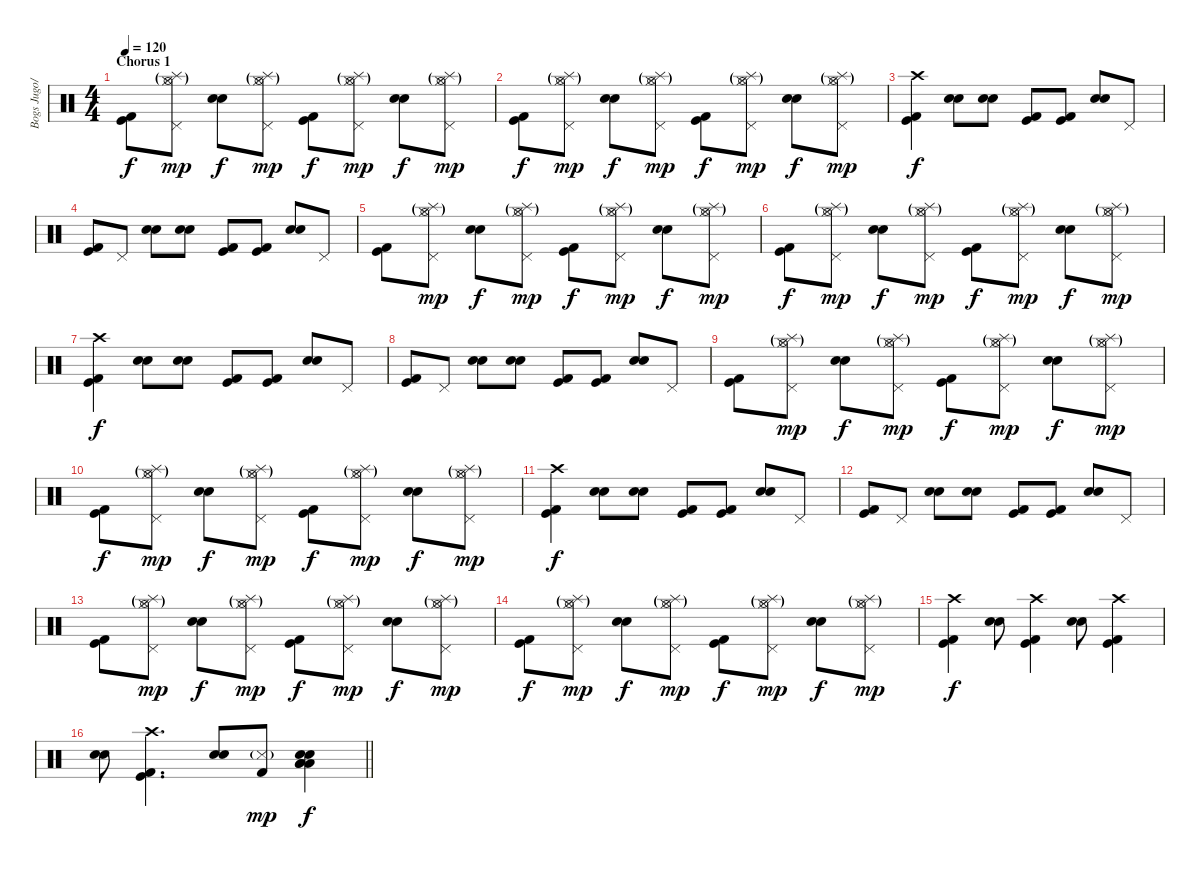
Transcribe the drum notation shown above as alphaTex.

\track ("Bogs Jugo/Drums" "Bogs Jugo/") {instrument percussion}
\staff {score}
\articulation defaults
\ts (4 4)
\section ("" "Chorus 1")
\tempo 120
\clef neutral
\ks c
("Kick (hit) 2" "Kick (hit)").8{dy f} ("Hi-Hat (open)"{g} "Splash (hit)"{g} "Pedal Hi-Hat (hit)" "Hi-Hat (closed)").8{dy mp} ("Electric Snare (hit)" "Snare (hit) 2").8{dy f} ("Hi-Hat (open)"{g} "Splash (hit)"{g} "Pedal Hi-Hat (hit)" "Hi-Hat (closed)").8{dy mp} ("Kick (hit) 2" "Kick (hit)").8{dy f} ("Hi-Hat (open)"{g} "Splash (hit)"{g} "Pedal Hi-Hat (hit)" "Hi-Hat (closed)").8{dy mp} ("Electric Snare (hit)" "Snare (hit) 2").8{dy f} ("Hi-Hat (open)"{g} "Splash (hit)"{g} "Pedal Hi-Hat (hit)" "Hi-Hat (closed)").8{dy mp} |
("Kick (hit) 2" "Kick (hit)").8{dy f} ("Hi-Hat (open)"{g} "Splash (hit)"{g} "Pedal Hi-Hat (hit)" "Hi-Hat (closed)").8{dy mp} ("Electric Snare (hit)" "Snare (hit) 2").8{dy f} ("Hi-Hat (open)"{g} "Splash (hit)"{g} "Pedal Hi-Hat (hit)" "Hi-Hat (closed)").8{dy mp} ("Kick (hit) 2" "Kick (hit)").8{dy f} ("Hi-Hat (open)"{g} "Splash (hit)"{g} "Pedal Hi-Hat (hit)" "Hi-Hat (closed)").8{dy mp} ("Electric Snare (hit)" "Snare (hit) 2").8{dy f} ("Hi-Hat (open)"{g} "Splash (hit)"{g} "Pedal Hi-Hat (hit)" "Hi-Hat (closed)").8{dy mp} |
("Crash high (hit)" "Kick (hit) 2" "Kick (hit)").4{dy f} ("Electric Snare (hit)" "Snare (hit) 2").8 ("Electric Snare (hit)" "Snare (hit) 2").8 ("Kick (hit) 2" "Kick (hit)").8 ("Kick (hit) 2" "Kick (hit)").8 ("Electric Snare (hit)" "Snare (hit) 2").8 "Pedal Hi-Hat (hit)".8 |
("Kick (hit) 2" "Kick (hit)").8 "Pedal Hi-Hat (hit)".8 ("Electric Snare (hit)" "Snare (hit) 2").8 ("Electric Snare (hit)" "Snare (hit) 2").8 ("Kick (hit) 2" "Kick (hit)").8 ("Kick (hit) 2" "Kick (hit)").8 ("Electric Snare (hit)" "Snare (hit) 2").8 "Pedal Hi-Hat (hit)".8 |
("Kick (hit) 2" "Kick (hit)").8 ("Hi-Hat (open)"{g} "Splash (hit)"{g} "Pedal Hi-Hat (hit)" "Hi-Hat (closed)").8{dy mp} ("Electric Snare (hit)" "Snare (hit) 2").8{dy f} ("Hi-Hat (open)"{g} "Splash (hit)"{g} "Pedal Hi-Hat (hit)" "Hi-Hat (closed)").8{dy mp} ("Kick (hit) 2" "Kick (hit)").8{dy f} ("Hi-Hat (open)"{g} "Splash (hit)"{g} "Pedal Hi-Hat (hit)" "Hi-Hat (closed)").8{dy mp} ("Electric Snare (hit)" "Snare (hit) 2").8{dy f} ("Hi-Hat (open)"{g} "Splash (hit)"{g} "Pedal Hi-Hat (hit)" "Hi-Hat (closed)").8{dy mp} |
("Kick (hit) 2" "Kick (hit)").8{dy f} ("Hi-Hat (open)"{g} "Splash (hit)"{g} "Pedal Hi-Hat (hit)" "Hi-Hat (closed)").8{dy mp} ("Electric Snare (hit)" "Snare (hit) 2").8{dy f} ("Hi-Hat (open)"{g} "Splash (hit)"{g} "Pedal Hi-Hat (hit)" "Hi-Hat (closed)").8{dy mp} ("Kick (hit) 2" "Kick (hit)").8{dy f} ("Hi-Hat (open)"{g} "Splash (hit)"{g} "Pedal Hi-Hat (hit)" "Hi-Hat (closed)").8{dy mp} ("Electric Snare (hit)" "Snare (hit) 2").8{dy f} ("Hi-Hat (open)"{g} "Splash (hit)"{g} "Pedal Hi-Hat (hit)" "Hi-Hat (closed)").8{dy mp} |
("Crash high (hit)" "Kick (hit) 2" "Kick (hit)").4{dy f} ("Electric Snare (hit)" "Snare (hit) 2").8 ("Electric Snare (hit)" "Snare (hit) 2").8 ("Kick (hit) 2" "Kick (hit)").8 ("Kick (hit) 2" "Kick (hit)").8 ("Electric Snare (hit)" "Snare (hit) 2").8 "Pedal Hi-Hat (hit)".8 |
("Kick (hit) 2" "Kick (hit)").8 "Pedal Hi-Hat (hit)".8 ("Electric Snare (hit)" "Snare (hit) 2").8 ("Electric Snare (hit)" "Snare (hit) 2").8 ("Kick (hit) 2" "Kick (hit)").8 ("Kick (hit) 2" "Kick (hit)").8 ("Electric Snare (hit)" "Snare (hit) 2").8 "Pedal Hi-Hat (hit)".8 |
("Kick (hit) 2" "Kick (hit)").8 ("Hi-Hat (open)"{g} "Splash (hit)"{g} "Pedal Hi-Hat (hit)" "Hi-Hat (closed)").8{dy mp} ("Electric Snare (hit)" "Snare (hit) 2").8{dy f} ("Hi-Hat (open)"{g} "Splash (hit)"{g} "Pedal Hi-Hat (hit)" "Hi-Hat (closed)").8{dy mp} ("Kick (hit) 2" "Kick (hit)").8{dy f} ("Hi-Hat (open)"{g} "Splash (hit)"{g} "Pedal Hi-Hat (hit)" "Hi-Hat (closed)").8{dy mp} ("Electric Snare (hit)" "Snare (hit) 2").8{dy f} ("Hi-Hat (open)"{g} "Splash (hit)"{g} "Pedal Hi-Hat (hit)" "Hi-Hat (closed)").8{dy mp} |
("Kick (hit) 2" "Kick (hit)").8{dy f} ("Hi-Hat (open)"{g} "Splash (hit)"{g} "Pedal Hi-Hat (hit)" "Hi-Hat (closed)").8{dy mp} ("Electric Snare (hit)" "Snare (hit) 2").8{dy f} ("Hi-Hat (open)"{g} "Splash (hit)"{g} "Pedal Hi-Hat (hit)" "Hi-Hat (closed)").8{dy mp} ("Kick (hit) 2" "Kick (hit)").8{dy f} ("Hi-Hat (open)"{g} "Splash (hit)"{g} "Pedal Hi-Hat (hit)" "Hi-Hat (closed)").8{dy mp} ("Electric Snare (hit)" "Snare (hit) 2").8{dy f} ("Hi-Hat (open)"{g} "Splash (hit)"{g} "Pedal Hi-Hat (hit)" "Hi-Hat (closed)").8{dy mp} |
("Crash high (hit)" "Kick (hit) 2" "Kick (hit)").4{dy f} ("Electric Snare (hit)" "Snare (hit) 2").8 ("Electric Snare (hit)" "Snare (hit) 2").8 ("Kick (hit) 2" "Kick (hit)").8 ("Kick (hit) 2" "Kick (hit)").8 ("Electric Snare (hit)" "Snare (hit) 2").8 "Pedal Hi-Hat (hit)".8 |
("Kick (hit) 2" "Kick (hit)").8 "Pedal Hi-Hat (hit)".8 ("Electric Snare (hit)" "Snare (hit) 2").8 ("Electric Snare (hit)" "Snare (hit) 2").8 ("Kick (hit) 2" "Kick (hit)").8 ("Kick (hit) 2" "Kick (hit)").8 ("Electric Snare (hit)" "Snare (hit) 2").8 "Pedal Hi-Hat (hit)".8 |
("Kick (hit) 2" "Kick (hit)").8 ("Hi-Hat (open)"{g} "Splash (hit)"{g} "Pedal Hi-Hat (hit)" "Hi-Hat (closed)").8{dy mp} ("Electric Snare (hit)" "Snare (hit) 2").8{dy f} ("Hi-Hat (open)"{g} "Splash (hit)"{g} "Pedal Hi-Hat (hit)" "Hi-Hat (closed)").8{dy mp} ("Kick (hit) 2" "Kick (hit)").8{dy f} ("Hi-Hat (open)"{g} "Splash (hit)"{g} "Pedal Hi-Hat (hit)" "Hi-Hat (closed)").8{dy mp} ("Electric Snare (hit)" "Snare (hit) 2").8{dy f} ("Hi-Hat (open)"{g} "Splash (hit)"{g} "Pedal Hi-Hat (hit)" "Hi-Hat (closed)").8{dy mp} |
("Kick (hit) 2" "Kick (hit)").8{dy f} ("Hi-Hat (open)"{g} "Splash (hit)"{g} "Pedal Hi-Hat (hit)" "Hi-Hat (closed)").8{dy mp} ("Electric Snare (hit)" "Snare (hit) 2").8{dy f} ("Hi-Hat (open)"{g} "Splash (hit)"{g} "Pedal Hi-Hat (hit)" "Hi-Hat (closed)").8{dy mp} ("Kick (hit) 2" "Kick (hit)").8{dy f} ("Hi-Hat (open)"{g} "Splash (hit)"{g} "Pedal Hi-Hat (hit)" "Hi-Hat (closed)").8{dy mp} ("Electric Snare (hit)" "Snare (hit) 2").8{dy f} ("Hi-Hat (open)"{g} "Splash (hit)"{g} "Pedal Hi-Hat (hit)" "Hi-Hat (closed)").8{dy mp} |
("Crash high (hit)" "Kick (hit) 2" "Kick (hit)").4{dy f} ("Electric Snare (hit)" "Snare (hit) 2").8 ("Crash high (hit)" "Kick (hit) 2" "Kick (hit)").4 ("Electric Snare (hit)" "Snare (hit) 2").8 ("Crash high (hit)" "Kick (hit) 2" "Kick (hit)").4 |
\barLineRight lightlight
("Electric Snare (hit)" "Snare (hit) 2").8 ("Crash high (hit)" "Kick (hit) 2" "Kick (hit)").4{d} ("Electric Snare (hit)" "Snare (hit) 2").8 ("Kick (hit) 2" "Snare (side stick) 3"{g}).8{dy mp} ("Electric Snare (hit)" "Snare (hit) 2" "Low Tom (hit)" "Low Tom (hit)" "Low Tom (hit)").4{dy f}
